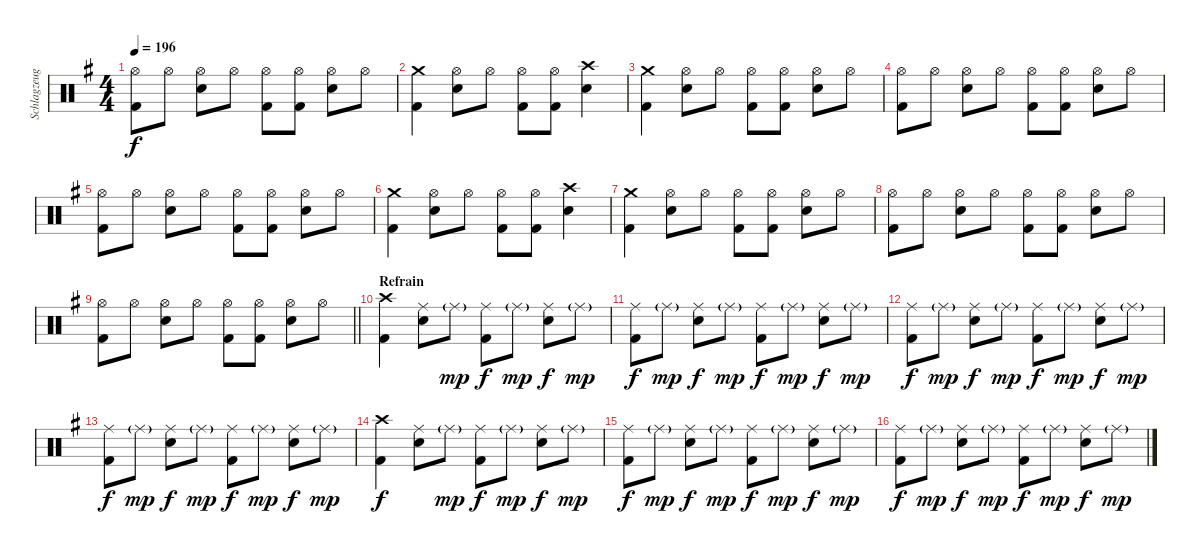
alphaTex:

\track ("Schlagzeug" "Schlagzeug") {instrument percussion}
\staff {score}
\articulation defaults
\ts (4 4)
\tempo 196
\clef neutral
\ks g
("Hi-Hat (open)" "Kick (hit) 2").8{dy f} "Hi-Hat (open)".8 ("Hi-Hat (open)" "Snare (hit) 2").8 "Hi-Hat (open)".8 ("Hi-Hat (open)" "Kick (hit) 2").8 ("Hi-Hat (open)" "Kick (hit) 2").8 ("Hi-Hat (open)" "Snare (hit) 2").8 "Hi-Hat (open)".8 |
("Crash medium (hit)" "Kick (hit) 2").4 ("Hi-Hat (open)" "Snare (hit) 2").8 "Hi-Hat (open)".8 ("Hi-Hat (open)" "Kick (hit) 2").8 ("Hi-Hat (open)" "Kick (hit) 2").8 ("Crash high (hit)" "Snare (hit) 2").4 |
("Crash medium (hit)" "Kick (hit) 2").4 ("Hi-Hat (open)" "Snare (hit) 2").8 "Hi-Hat (open)".8 ("Hi-Hat (open)" "Kick (hit) 2").8 ("Hi-Hat (open)" "Kick (hit) 2").8 ("Hi-Hat (open)" "Snare (hit) 2").8 "Hi-Hat (open)".8 |
("Hi-Hat (open)" "Kick (hit) 2").8 "Hi-Hat (open)".8 ("Hi-Hat (open)" "Snare (hit) 2").8 "Hi-Hat (open)".8 ("Hi-Hat (open)" "Kick (hit) 2").8 ("Hi-Hat (open)" "Kick (hit) 2").8 ("Hi-Hat (open)" "Snare (hit) 2").8 "Hi-Hat (open)".8 |
("Hi-Hat (open)" "Kick (hit) 2").8 "Hi-Hat (open)".8 ("Hi-Hat (open)" "Snare (hit) 2").8 "Hi-Hat (open)".8 ("Hi-Hat (open)" "Kick (hit) 2").8 ("Hi-Hat (open)" "Kick (hit) 2").8 ("Hi-Hat (open)" "Snare (hit) 2").8 "Hi-Hat (open)".8 |
("Crash medium (hit)" "Kick (hit) 2").4 ("Hi-Hat (open)" "Snare (hit) 2").8 "Hi-Hat (open)".8 ("Hi-Hat (open)" "Kick (hit) 2").8 ("Hi-Hat (open)" "Kick (hit) 2").8 ("Crash high (hit)" "Snare (hit) 2").4 |
("Crash medium (hit)" "Kick (hit) 2").4 ("Hi-Hat (open)" "Snare (hit) 2").8 "Hi-Hat (open)".8 ("Hi-Hat (open)" "Kick (hit) 2").8 ("Hi-Hat (open)" "Kick (hit) 2").8 ("Hi-Hat (open)" "Snare (hit) 2").8 "Hi-Hat (open)".8 |
("Hi-Hat (open)" "Kick (hit) 2").8 "Hi-Hat (open)".8 ("Hi-Hat (open)" "Snare (hit) 2").8 "Hi-Hat (open)".8 ("Hi-Hat (open)" "Kick (hit) 2").8 ("Hi-Hat (open)" "Kick (hit) 2").8 ("Hi-Hat (open)" "Snare (hit) 2").8 "Hi-Hat (open)".8 |
\barLineRight lightlight
("Hi-Hat (open)" "Kick (hit) 2").8 "Hi-Hat (open)".8 ("Hi-Hat (open)" "Snare (hit) 2").8 "Hi-Hat (open)".8 ("Hi-Hat (open)" "Kick (hit) 2").8 ("Hi-Hat (open)" "Kick (hit) 2").8 ("Hi-Hat (open)" "Snare (hit) 2").8 "Hi-Hat (open)".8 |
\section ("" "Refrain")
("Crash high (hit)" "Kick (hit) 2").4 ("Ride (middle)" "Snare (hit) 2").8 "Ride (middle)"{g}.8{dy mp} ("Ride (middle)" "Kick (hit) 2").8{dy f} "Ride (middle)"{g}.8{dy mp} ("Ride (middle)" "Snare (hit) 2").8{dy f} "Ride (middle)"{g}.8{dy mp} |
("Ride (middle)" "Kick (hit) 2").8{dy f} "Ride (middle)"{g}.8{dy mp} ("Ride (middle)" "Snare (hit) 2").8{dy f} "Ride (middle)"{g}.8{dy mp} ("Ride (middle)" "Kick (hit) 2").8{dy f} "Ride (middle)"{g}.8{dy mp} ("Ride (middle)" "Snare (hit) 2").8{dy f} "Ride (middle)"{g}.8{dy mp} |
("Ride (middle)" "Kick (hit) 2").8{dy f} "Ride (middle)"{g}.8{dy mp} ("Ride (middle)" "Snare (hit) 2").8{dy f} "Ride (middle)"{g}.8{dy mp} ("Ride (middle)" "Kick (hit) 2").8{dy f} "Ride (middle)"{g}.8{dy mp} ("Ride (middle)" "Snare (hit) 2").8{dy f} "Ride (middle)"{g}.8{dy mp} |
("Ride (middle)" "Kick (hit) 2").8{dy f} "Ride (middle)"{g}.8{dy mp} ("Ride (middle)" "Snare (hit) 2").8{dy f} "Ride (middle)"{g}.8{dy mp} ("Ride (middle)" "Kick (hit) 2").8{dy f} "Ride (middle)"{g}.8{dy mp} ("Ride (middle)" "Snare (hit) 2").8{dy f} "Ride (middle)"{g}.8{dy mp} |
("Crash high (hit)" "Kick (hit) 2").4{dy f} ("Ride (middle)" "Snare (hit) 2").8 "Ride (middle)"{g}.8{dy mp} ("Ride (middle)" "Kick (hit) 2").8{dy f} "Ride (middle)"{g}.8{dy mp} ("Ride (middle)" "Snare (hit) 2").8{dy f} "Ride (middle)"{g}.8{dy mp} |
("Ride (middle)" "Kick (hit) 2").8{dy f} "Ride (middle)"{g}.8{dy mp} ("Ride (middle)" "Snare (hit) 2").8{dy f} "Ride (middle)"{g}.8{dy mp} ("Ride (middle)" "Kick (hit) 2").8{dy f} "Ride (middle)"{g}.8{dy mp} ("Ride (middle)" "Snare (hit) 2").8{dy f} "Ride (middle)"{g}.8{dy mp} |
("Ride (middle)" "Kick (hit) 2").8{dy f} "Ride (middle)"{g}.8{dy mp} ("Ride (middle)" "Snare (hit) 2").8{dy f} "Ride (middle)"{g}.8{dy mp} ("Ride (middle)" "Kick (hit) 2").8{dy f} "Ride (middle)"{g}.8{dy mp} ("Ride (middle)" "Snare (hit) 2").8{dy f} "Ride (middle)"{g}.8{dy mp}
